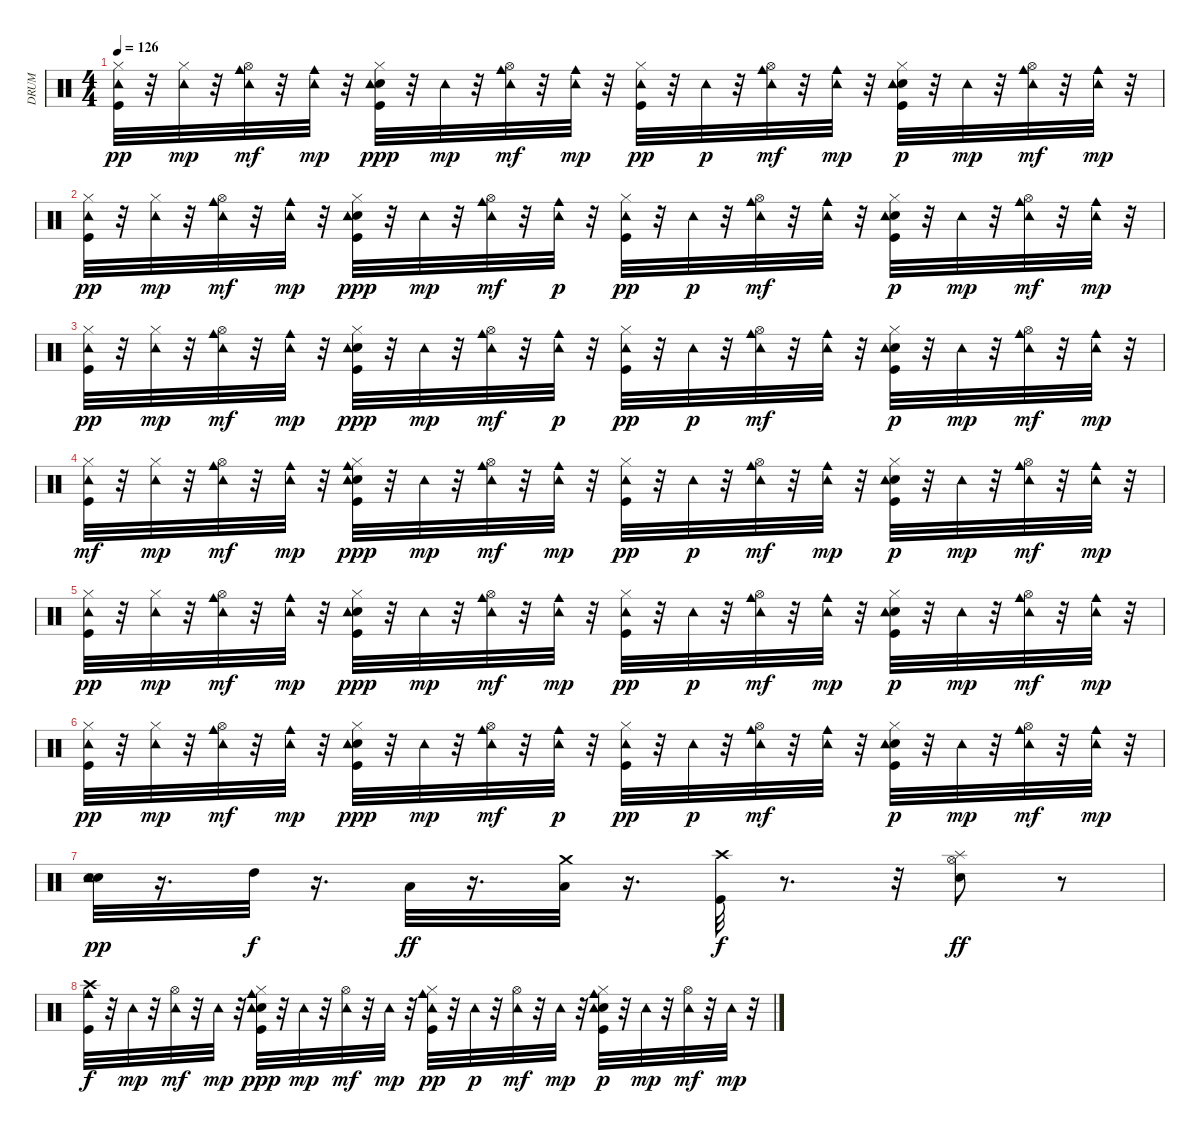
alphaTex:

\track ("DRUM" "DRUM") {instrument percussion}
\staff {score}
\articulation defaults
\ts (4 4)
\tempo 126
\clef neutral
\ks c
("Kick (hit)" "Hi-Hat (closed)" "Tambourine (hit)").32{dy pp} r.32 ("Hi-Hat (closed)" "Tambourine (hit)").32{dy mp} r.32 ("Hi-Hat (open)" "Tambourine (hit)" "Cowbell medium (hit)").32{dy mf} r.32 ("Tambourine (hit)" "Cowbell medium (hit)").32{dy mp} r.32 ("Kick (hit)" "Electric Snare (hit)" "Hi-Hat (closed)" "Tambourine (hit)").32{dy ppp} r.32 "Tambourine (hit)".32{dy mp} r.32 ("Hi-Hat (open)" "Tambourine (hit)" "Cowbell medium (hit)").32{dy mf} r.32 ("Tambourine (hit)" "Cowbell medium (hit)").32{dy mp} r.32 ("Kick (hit)" "Hi-Hat (closed)" "Tambourine (hit)").32{dy pp} r.32 "Tambourine (hit)".32{dy p} r.32 ("Hi-Hat (open)" "Tambourine (hit)" "Cowbell medium (hit)").32{dy mf} r.32 ("Tambourine (hit)" "Cowbell medium (hit)").32{dy mp} r.32 ("Kick (hit)" "Electric Snare (hit)" "Hi-Hat (closed)" "Tambourine (hit)").32{dy p} r.32 "Tambourine (hit)".32{dy mp} r.32 ("Hi-Hat (open)" "Tambourine (hit)" "Cowbell medium (hit)").32{dy mf} r.32 ("Tambourine (hit)" "Cowbell medium (hit)").32{dy mp} r.32 |
("Kick (hit)" "Hi-Hat (closed)" "Tambourine (hit)").32{dy pp} r.32 ("Hi-Hat (closed)" "Tambourine (hit)").32{dy mp} r.32 ("Hi-Hat (open)" "Tambourine (hit)" "Cowbell medium (hit)").32{dy mf} r.32 ("Tambourine (hit)" "Cowbell medium (hit)").32{dy mp} r.32 ("Kick (hit)" "Electric Snare (hit)" "Hi-Hat (closed)" "Tambourine (hit)").32{dy ppp} r.32 "Tambourine (hit)".32{dy mp} r.32 ("Hi-Hat (open)" "Tambourine (hit)" "Cowbell medium (hit)").32{dy mf} r.32 ("Tambourine (hit)" "Cowbell medium (hit)").32{dy p} r.32 ("Kick (hit)" "Hi-Hat (closed)" "Tambourine (hit)").32{dy pp} r.32 "Tambourine (hit)".32{dy p} r.32 ("Hi-Hat (open)" "Tambourine (hit)" "Cowbell medium (hit)").32{dy mf} r.32 ("Tambourine (hit)" "Cowbell medium (hit)").32 r.32 ("Kick (hit)" "Electric Snare (hit)" "Hi-Hat (closed)" "Tambourine (hit)").32{dy p} r.32 "Tambourine (hit)".32{dy mp} r.32 ("Hi-Hat (open)" "Tambourine (hit)" "Cowbell medium (hit)").32{dy mf} r.32 ("Tambourine (hit)" "Cowbell medium (hit)").32{dy mp} r.32 |
("Kick (hit)" "Hi-Hat (closed)" "Tambourine (hit)").32{dy pp} r.32 ("Hi-Hat (closed)" "Tambourine (hit)").32{dy mp} r.32 ("Hi-Hat (open)" "Tambourine (hit)" "Cowbell medium (hit)").32{dy mf} r.32 ("Tambourine (hit)" "Cowbell medium (hit)").32{dy mp} r.32 ("Kick (hit)" "Electric Snare (hit)" "Hi-Hat (closed)" "Tambourine (hit)").32{dy ppp} r.32 "Tambourine (hit)".32{dy mp} r.32 ("Hi-Hat (open)" "Tambourine (hit)" "Cowbell medium (hit)").32{dy mf} r.32 ("Tambourine (hit)" "Cowbell medium (hit)").32{dy p} r.32 ("Kick (hit)" "Hi-Hat (closed)" "Tambourine (hit)").32{dy pp} r.32 "Tambourine (hit)".32{dy p} r.32 ("Hi-Hat (open)" "Tambourine (hit)" "Cowbell medium (hit)").32{dy mf} r.32 ("Tambourine (hit)" "Cowbell medium (hit)").32 r.32 ("Kick (hit)" "Electric Snare (hit)" "Hi-Hat (closed)" "Tambourine (hit)").32{dy p} r.32 "Tambourine (hit)".32{dy mp} r.32 ("Hi-Hat (open)" "Tambourine (hit)" "Cowbell medium (hit)").32{dy mf} r.32 ("Tambourine (hit)" "Cowbell medium (hit)").32{dy mp} r.32 |
("Kick (hit)" "Hi-Hat (closed)" "Tambourine (hit)").32{dy mf} r.32 ("Hi-Hat (closed)" "Tambourine (hit)").32{dy mp} r.32 ("Hi-Hat (open)" "Tambourine (hit)" "Cowbell medium (hit)").32{dy mf} r.32 ("Tambourine (hit)" "Cowbell medium (hit)").32{dy mp} r.32 ("Kick (hit)" "Electric Snare (hit)" "Hi-Hat (closed)" "Tambourine (hit)" "Cowbell medium (hit)").32{dy ppp} r.32 "Tambourine (hit)".32{dy mp} r.32 ("Hi-Hat (open)" "Tambourine (hit)" "Cowbell medium (hit)").32{dy mf} r.32 ("Tambourine (hit)" "Cowbell medium (hit)").32{dy mp} r.32 ("Kick (hit)" "Hi-Hat (closed)" "Tambourine (hit)").32{dy pp} r.32 "Tambourine (hit)".32{dy p} r.32 ("Hi-Hat (open)" "Tambourine (hit)" "Cowbell medium (hit)").32{dy mf} r.32 ("Tambourine (hit)" "Cowbell medium (hit)").32{dy mp} r.32 ("Kick (hit)" "Electric Snare (hit)" "Hi-Hat (closed)" "Tambourine (hit)").32{dy p} r.32 "Tambourine (hit)".32{dy mp} r.32 ("Hi-Hat (open)" "Tambourine (hit)" "Cowbell medium (hit)").32{dy mf} r.32 ("Tambourine (hit)" "Cowbell medium (hit)").32{dy mp} r.32 |
("Kick (hit)" "Hi-Hat (closed)" "Tambourine (hit)").32{dy pp} r.32 ("Hi-Hat (closed)" "Tambourine (hit)").32{dy mp} r.32 ("Hi-Hat (open)" "Tambourine (hit)" "Cowbell medium (hit)").32{dy mf} r.32 ("Tambourine (hit)" "Cowbell medium (hit)").32{dy mp} r.32 ("Kick (hit)" "Electric Snare (hit)" "Hi-Hat (closed)" "Tambourine (hit)").32{dy ppp} r.32 "Tambourine (hit)".32{dy mp} r.32 ("Hi-Hat (open)" "Tambourine (hit)" "Cowbell medium (hit)").32{dy mf} r.32 ("Tambourine (hit)" "Cowbell medium (hit)").32{dy mp} r.32 ("Kick (hit)" "Hi-Hat (closed)" "Tambourine (hit)").32{dy pp} r.32 "Tambourine (hit)".32{dy p} r.32 ("Hi-Hat (open)" "Tambourine (hit)" "Cowbell medium (hit)").32{dy mf} r.32 ("Tambourine (hit)" "Cowbell medium (hit)").32{dy mp} r.32 ("Kick (hit)" "Electric Snare (hit)" "Hi-Hat (closed)" "Tambourine (hit)").32{dy p} r.32 "Tambourine (hit)".32{dy mp} r.32 ("Hi-Hat (open)" "Tambourine (hit)" "Cowbell medium (hit)").32{dy mf} r.32 ("Tambourine (hit)" "Cowbell medium (hit)").32{dy mp} r.32 |
("Kick (hit)" "Hi-Hat (closed)" "Tambourine (hit)").32{dy pp} r.32 ("Hi-Hat (closed)" "Tambourine (hit)").32{dy mp} r.32 ("Hi-Hat (open)" "Tambourine (hit)" "Cowbell medium (hit)").32{dy mf} r.32 ("Tambourine (hit)" "Cowbell medium (hit)").32{dy mp} r.32 ("Kick (hit)" "Electric Snare (hit)" "Hi-Hat (closed)" "Tambourine (hit)").32{dy ppp} r.32 "Tambourine (hit)".32{dy mp} r.32 ("Hi-Hat (open)" "Tambourine (hit)" "Cowbell medium (hit)").32{dy mf} r.32 ("Tambourine (hit)" "Cowbell medium (hit)").32{dy p} r.32 ("Kick (hit)" "Hi-Hat (closed)" "Tambourine (hit)").32{dy pp} r.32 "Tambourine (hit)".32{dy p} r.32 ("Hi-Hat (open)" "Tambourine (hit)" "Cowbell medium (hit)").32{dy mf} r.32 ("Tambourine (hit)" "Cowbell medium (hit)").32 r.32 ("Kick (hit)" "Electric Snare (hit)" "Hi-Hat (closed)" "Tambourine (hit)").32{dy p} r.32 "Tambourine (hit)".32{dy mp} r.32 ("Hi-Hat (open)" "Tambourine (hit)" "Cowbell medium (hit)").32{dy mf} r.32 ("Tambourine (hit)" "Cowbell medium (hit)").32{dy mp} r.32 |
("Electric Snare (hit)" "Electric Snare (hit)" "Tambourine (hit)").32{dy pp} r.16{d} "High Tom (hit)".32{dy f} r.16{d} "Low Tom (hit)".32{dy ff} r.16{d} ("Low Floor Tom (hit)" "Crash medium (hit)").32 r.16{d} ("Kick (hit)" "Crash high (hit)").32{dy f} r.8{d} r.32 ("Electric Snare (hit)" "Hi-Hat (open)" "Splash (hit)").8{dy ff} r.8 |
("Kick (hit)" "Crash high (hit)" "Cowbell medium (hit)").32{dy f} r.32 "Tambourine (hit)".32{dy mp} r.32 ("Hi-Hat (open)" "Tambourine (hit)").32{dy mf} r.32 "Tambourine (hit)".32{dy mp} r.32 ("Kick (hit)" "Electric Snare (hit)" "Hi-Hat (closed)" "Tambourine (hit)" "Cowbell medium (hit)").32{dy ppp} r.32 "Tambourine (hit)".32{dy mp} r.32 ("Hi-Hat (open)" "Tambourine (hit)").32{dy mf} r.32 "Tambourine (hit)".32{dy mp} r.32 ("Kick (hit)" "Hi-Hat (closed)" "Tambourine (hit)" "Cowbell medium (hit)").32{dy pp} r.32 "Tambourine (hit)".32{dy p} r.32 ("Hi-Hat (open)" "Tambourine (hit)").32{dy mf} r.32 "Tambourine (hit)".32{dy mp} r.32 ("Kick (hit)" "Electric Snare (hit)" "Hi-Hat (closed)" "Tambourine (hit)" "Cowbell medium (hit)").32{dy p} r.32 "Tambourine (hit)".32{dy mp} r.32 ("Hi-Hat (open)" "Tambourine (hit)").32{dy mf} r.32 "Tambourine (hit)".32{dy mp} r.32
